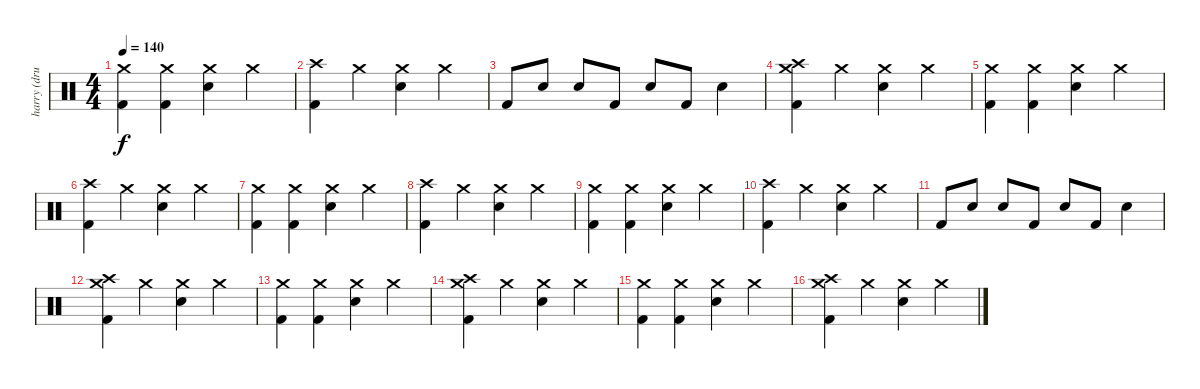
\track ("harry (drum)" "harry (dru") {instrument percussion}
\staff {score}
\articulation defaults
\ts (4 4)
\tempo 140
\clef neutral
\ks c
("Kick (hit) 2" "Crash medium (hit)").4{dy f} ("Kick (hit) 2" "Crash medium (hit)").4 ("Snare (hit) 2" "Crash medium (hit)").4 "Crash medium (hit)".4 |
("Kick (hit) 2" "Crash high (hit)").4 "Crash medium (hit)".4 ("Snare (hit) 2" "Crash medium (hit)").4 "Crash medium (hit)".4 |
"Kick (hit) 2".8 "Snare (hit) 2".8 "Snare (hit) 2".8 "Kick (hit) 2".8 "Snare (hit) 2".8 "Kick (hit) 2".8 "Snare (hit) 2".4 |
("Kick (hit) 2" "Crash high (hit)" "Crash medium (hit)").4 "Crash medium (hit)".4 ("Snare (hit) 2" "Crash medium (hit)").4 "Crash medium (hit)".4 |
("Kick (hit) 2" "Crash medium (hit)").4 ("Kick (hit) 2" "Crash medium (hit)").4 ("Snare (hit) 2" "Crash medium (hit)").4 "Crash medium (hit)".4 |
("Kick (hit) 2" "Crash high (hit)").4 "Crash medium (hit)".4 ("Snare (hit) 2" "Crash medium (hit)").4 "Crash medium (hit)".4 |
("Kick (hit) 2" "Crash medium (hit)").4 ("Kick (hit) 2" "Crash medium (hit)").4 ("Snare (hit) 2" "Crash medium (hit)").4 "Crash medium (hit)".4 |
("Kick (hit) 2" "Crash high (hit)").4 "Crash medium (hit)".4 ("Snare (hit) 2" "Crash medium (hit)").4 "Crash medium (hit)".4 |
("Kick (hit) 2" "Crash medium (hit)").4 ("Kick (hit) 2" "Crash medium (hit)").4 ("Snare (hit) 2" "Crash medium (hit)").4 "Crash medium (hit)".4 |
("Kick (hit) 2" "Crash high (hit)").4 "Crash medium (hit)".4 ("Snare (hit) 2" "Crash medium (hit)").4 "Crash medium (hit)".4 |
"Kick (hit) 2".8 "Snare (hit) 2".8 "Snare (hit) 2".8 "Kick (hit) 2".8 "Snare (hit) 2".8 "Kick (hit) 2".8 "Snare (hit) 2".4 |
("Kick (hit) 2" "Crash high (hit)" "Crash medium (hit)").4 "Crash medium (hit)".4 ("Snare (hit) 2" "Crash medium (hit)").4 "Crash medium (hit)".4 |
("Kick (hit) 2" "Crash medium (hit)").4 ("Kick (hit) 2" "Crash medium (hit)").4 ("Snare (hit) 2" "Crash medium (hit)").4 "Crash medium (hit)".4 |
("Kick (hit) 2" "Crash high (hit)" "Crash medium (hit)").4 "Crash medium (hit)".4 ("Snare (hit) 2" "Crash medium (hit)").4 "Crash medium (hit)".4 |
("Kick (hit) 2" "Crash medium (hit)").4 ("Kick (hit) 2" "Crash medium (hit)").4 ("Snare (hit) 2" "Crash medium (hit)").4 "Crash medium (hit)".4 |
("Kick (hit) 2" "Crash high (hit)" "Crash medium (hit)").4 "Crash medium (hit)".4 ("Snare (hit) 2" "Crash medium (hit)").4 "Crash medium (hit)".4
